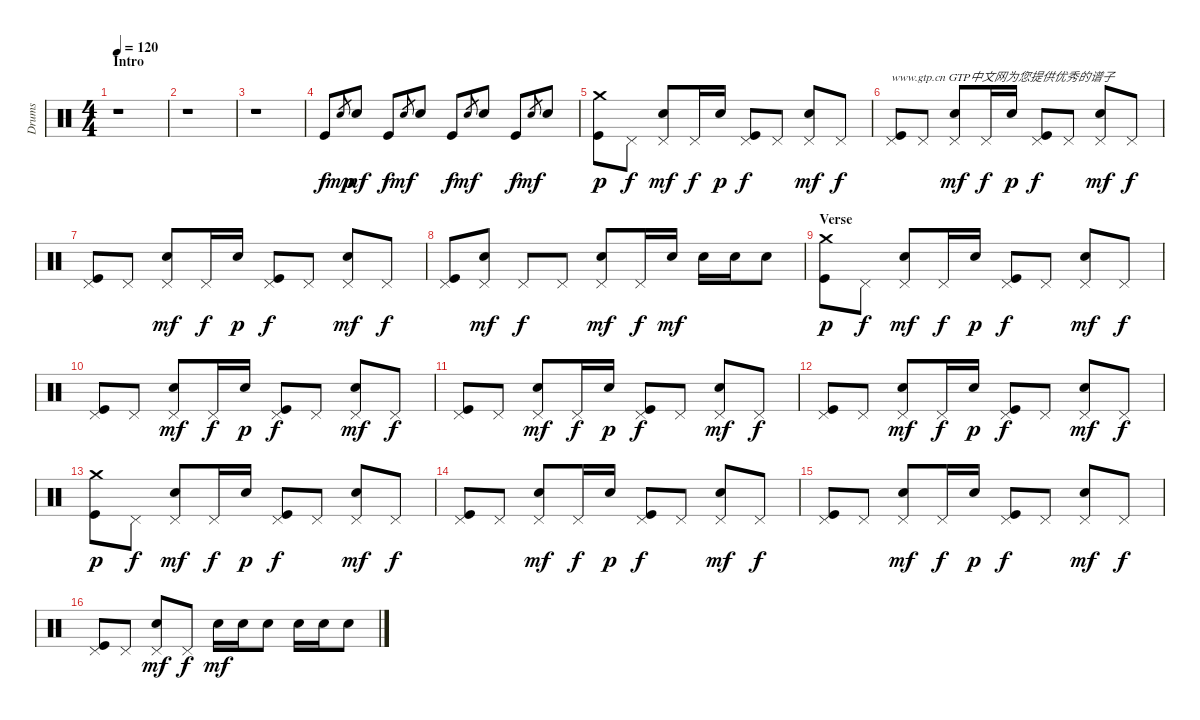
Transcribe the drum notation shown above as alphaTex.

\track ("Drums" "Drums") {instrument percussion}
\staff {score}
\articulation defaults
\ts (4 4)
\section ("" "Intro")
\tempo 120
\clef neutral
\ks c
r.1{dy f} |
r.1 |
r.1 |
"Kick (hit)".8 "Electric Snare (hit)".8{gr dy mp} "Electric Snare (hit)".8{dy mf} "Kick (hit)".8{dy f} "Electric Snare (hit)".8{gr dy mf} "Electric Snare (hit)".8 "Kick (hit)".8{dy f} "Electric Snare (hit)".8{gr dy mf} "Electric Snare (hit)".8 "Kick (hit)".8{dy f} "Electric Snare (hit)".8{gr dy mf} "Electric Snare (hit)".8 |
("Crash medium (hit)" "Kick (hit)").8{dy p} "Pedal Hi-Hat (hit)".8{dy f} ("Pedal Hi-Hat (hit)" "Electric Snare (hit)").8{dy mf} "Pedal Hi-Hat (hit)".16{dy f} "Electric Snare (hit)".16{dy p} ("Pedal Hi-Hat (hit)" "Kick (hit)").8{dy f} "Pedal Hi-Hat (hit)".8 ("Pedal Hi-Hat (hit)" "Electric Snare (hit)").8{dy mf} "Pedal Hi-Hat (hit)".8{dy f} |
("Pedal Hi-Hat (hit)" "Kick (hit)").8{txt "www.gtp.cn GTP中文网为您提供优秀的谱子"} "Pedal Hi-Hat (hit)".8 ("Pedal Hi-Hat (hit)" "Electric Snare (hit)").8{dy mf} "Pedal Hi-Hat (hit)".16{dy f} "Electric Snare (hit)".16{dy p} ("Pedal Hi-Hat (hit)" "Kick (hit)").8{dy f} "Pedal Hi-Hat (hit)".8 ("Pedal Hi-Hat (hit)" "Electric Snare (hit)").8{dy mf} "Pedal Hi-Hat (hit)".8{dy f} |
("Pedal Hi-Hat (hit)" "Kick (hit)").8 "Pedal Hi-Hat (hit)".8 ("Pedal Hi-Hat (hit)" "Electric Snare (hit)").8{dy mf} "Pedal Hi-Hat (hit)".16{dy f} "Electric Snare (hit)".16{dy p} ("Pedal Hi-Hat (hit)" "Kick (hit)").8{dy f} "Pedal Hi-Hat (hit)".8 ("Pedal Hi-Hat (hit)" "Electric Snare (hit)").8{dy mf} "Pedal Hi-Hat (hit)".8{dy f} |
("Pedal Hi-Hat (hit)" "Kick (hit)").8 ("Pedal Hi-Hat (hit)" "Electric Snare (hit)").8{dy mf} "Pedal Hi-Hat (hit)".8{dy f} "Pedal Hi-Hat (hit)".8 ("Pedal Hi-Hat (hit)" "Electric Snare (hit)").8{dy mf} "Pedal Hi-Hat (hit)".16{dy f} "Electric Snare (hit)".16{dy mf} "Electric Snare (hit)".16 "Electric Snare (hit)".16 "Electric Snare (hit)".8 |
\section ("" "Verse")
("Crash medium (hit)" "Kick (hit)").8{dy p} "Pedal Hi-Hat (hit)".8{dy f} ("Pedal Hi-Hat (hit)" "Electric Snare (hit)").8{dy mf} "Pedal Hi-Hat (hit)".16{dy f} "Electric Snare (hit)".16{dy p} ("Pedal Hi-Hat (hit)" "Kick (hit)").8{dy f} "Pedal Hi-Hat (hit)".8 ("Pedal Hi-Hat (hit)" "Electric Snare (hit)").8{dy mf} "Pedal Hi-Hat (hit)".8{dy f} |
("Pedal Hi-Hat (hit)" "Kick (hit)").8 "Pedal Hi-Hat (hit)".8 ("Pedal Hi-Hat (hit)" "Electric Snare (hit)").8{dy mf} "Pedal Hi-Hat (hit)".16{dy f} "Electric Snare (hit)".16{dy p} ("Pedal Hi-Hat (hit)" "Kick (hit)").8{dy f} "Pedal Hi-Hat (hit)".8 ("Pedal Hi-Hat (hit)" "Electric Snare (hit)").8{dy mf} "Pedal Hi-Hat (hit)".8{dy f} |
("Pedal Hi-Hat (hit)" "Kick (hit)").8 "Pedal Hi-Hat (hit)".8 ("Pedal Hi-Hat (hit)" "Electric Snare (hit)").8{dy mf} "Pedal Hi-Hat (hit)".16{dy f} "Electric Snare (hit)".16{dy p} ("Pedal Hi-Hat (hit)" "Kick (hit)").8{dy f} "Pedal Hi-Hat (hit)".8 ("Pedal Hi-Hat (hit)" "Electric Snare (hit)").8{dy mf} "Pedal Hi-Hat (hit)".8{dy f} |
("Pedal Hi-Hat (hit)" "Kick (hit)").8 "Pedal Hi-Hat (hit)".8 ("Pedal Hi-Hat (hit)" "Electric Snare (hit)").8{dy mf} "Pedal Hi-Hat (hit)".16{dy f} "Electric Snare (hit)".16{dy p} ("Pedal Hi-Hat (hit)" "Kick (hit)").8{dy f} "Pedal Hi-Hat (hit)".8 ("Pedal Hi-Hat (hit)" "Electric Snare (hit)").8{dy mf} "Pedal Hi-Hat (hit)".8{dy f} |
("Crash medium (hit)" "Kick (hit)").8{dy p} "Pedal Hi-Hat (hit)".8{dy f} ("Pedal Hi-Hat (hit)" "Electric Snare (hit)").8{dy mf} "Pedal Hi-Hat (hit)".16{dy f} "Electric Snare (hit)".16{dy p} ("Pedal Hi-Hat (hit)" "Kick (hit)").8{dy f} "Pedal Hi-Hat (hit)".8 ("Pedal Hi-Hat (hit)" "Electric Snare (hit)").8{dy mf} "Pedal Hi-Hat (hit)".8{dy f} |
("Pedal Hi-Hat (hit)" "Kick (hit)").8 "Pedal Hi-Hat (hit)".8 ("Pedal Hi-Hat (hit)" "Electric Snare (hit)").8{dy mf} "Pedal Hi-Hat (hit)".16{dy f} "Electric Snare (hit)".16{dy p} ("Pedal Hi-Hat (hit)" "Kick (hit)").8{dy f} "Pedal Hi-Hat (hit)".8 ("Pedal Hi-Hat (hit)" "Electric Snare (hit)").8{dy mf} "Pedal Hi-Hat (hit)".8{dy f} |
("Pedal Hi-Hat (hit)" "Kick (hit)").8 "Pedal Hi-Hat (hit)".8 ("Pedal Hi-Hat (hit)" "Electric Snare (hit)").8{dy mf} "Pedal Hi-Hat (hit)".16{dy f} "Electric Snare (hit)".16{dy p} ("Pedal Hi-Hat (hit)" "Kick (hit)").8{dy f} "Pedal Hi-Hat (hit)".8 ("Pedal Hi-Hat (hit)" "Electric Snare (hit)").8{dy mf} "Pedal Hi-Hat (hit)".8{dy f} |
("Pedal Hi-Hat (hit)" "Kick (hit)").8 "Pedal Hi-Hat (hit)".8 ("Pedal Hi-Hat (hit)" "Electric Snare (hit)").8{dy mf} "Pedal Hi-Hat (hit)".8{dy f} "Electric Snare (hit)".16{dy mf} "Electric Snare (hit)".16 "Electric Snare (hit)".8 "Electric Snare (hit)".16 "Electric Snare (hit)".16 "Electric Snare (hit)".8
